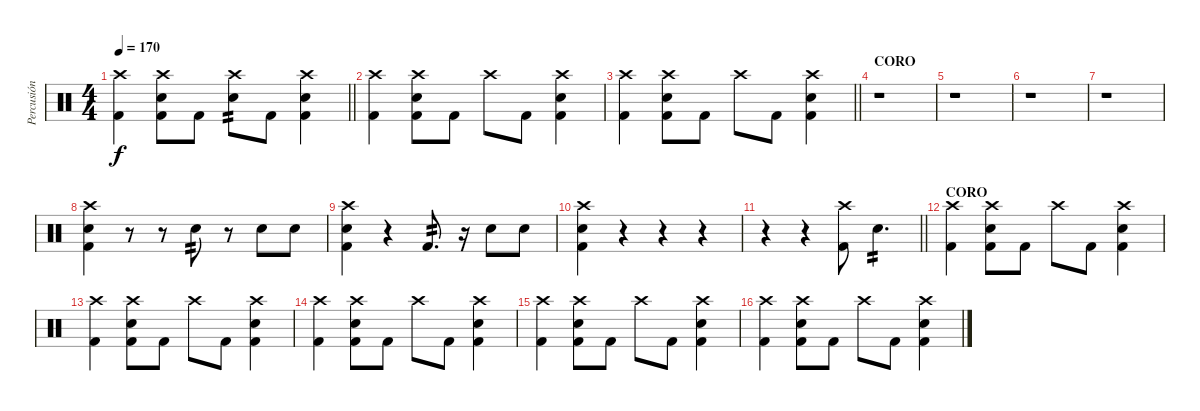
\track ("Percusión" "Percusión") {instrument percussion}
\staff {score}
\articulation defaults
\ts (4 4)
\tempo 170
\clef neutral
\barLineRight lightlight
\ks c
("Crash high (hit)" "Kick (hit) 2").4{dy f} ("Crash high (hit)" "Electric Snare (hit)" "Kick (hit) 2").8 "Kick (hit) 2".8 ("Crash high (hit)" "Electric Snare (hit)").8{tp 2} "Kick (hit) 2".8 ("Crash high (hit)" "Electric Snare (hit)" "Kick (hit) 2").4 |
("Crash high (hit)" "Kick (hit) 2").4 ("Crash high (hit)" "Electric Snare (hit)" "Kick (hit) 2").8 "Kick (hit) 2".8 "Crash high (hit)".8 "Kick (hit) 2".8 ("Crash high (hit)" "Electric Snare (hit)" "Kick (hit) 2").4 |
\barLineRight lightlight
("Crash high (hit)" "Kick (hit) 2").4 ("Crash high (hit)" "Electric Snare (hit)" "Kick (hit) 2").8 "Kick (hit) 2".8 "Crash high (hit)".8 "Kick (hit) 2".8 ("Crash high (hit)" "Electric Snare (hit)" "Kick (hit) 2").4 |
\section ("" "CORO")
r.1 |
r.1 |
r.1 |
r.1 |
("Crash high (hit)" "Electric Snare (hit)" "Kick (hit) 2").4 r.8 r.8 "Electric Snare (hit)".8{tp 2} r.8 "Electric Snare (hit)".8 "Electric Snare (hit)".8 |
("Crash high (hit)" "Electric Snare (hit)" "Kick (hit) 2").4 r.4 "Kick (hit) 2".8{d tp 2} r.16 "Electric Snare (hit)".8 "Electric Snare (hit)".8 |
("Crash high (hit)" "Electric Snare (hit)" "Kick (hit) 2").4 r.4 r.4 r.4 |
\barLineRight lightlight
r.4 r.4 ("Crash high (hit)" "Kick (hit) 2").8 "Electric Snare (hit)".4{d tp 2} |
\section ("" "CORO")
("Crash high (hit)" "Kick (hit) 2").4 ("Crash high (hit)" "Electric Snare (hit)" "Kick (hit) 2").8 "Kick (hit) 2".8 "Crash high (hit)".8 "Kick (hit) 2".8 ("Crash high (hit)" "Electric Snare (hit)" "Kick (hit) 2").4 |
("Crash high (hit)" "Kick (hit) 2").4 ("Crash high (hit)" "Electric Snare (hit)" "Kick (hit) 2").8 "Kick (hit) 2".8 "Crash high (hit)".8 "Kick (hit) 2".8 ("Crash high (hit)" "Electric Snare (hit)" "Kick (hit) 2").4 |
("Crash high (hit)" "Kick (hit) 2").4 ("Crash high (hit)" "Electric Snare (hit)" "Kick (hit) 2").8 "Kick (hit) 2".8 "Crash high (hit)".8 "Kick (hit) 2".8 ("Crash high (hit)" "Electric Snare (hit)" "Kick (hit) 2").4 |
("Crash high (hit)" "Kick (hit) 2").4 ("Crash high (hit)" "Electric Snare (hit)" "Kick (hit) 2").8 "Kick (hit) 2".8 "Crash high (hit)".8 "Kick (hit) 2".8 ("Crash high (hit)" "Electric Snare (hit)" "Kick (hit) 2").4 |
("Crash high (hit)" "Kick (hit) 2").4 ("Crash high (hit)" "Electric Snare (hit)" "Kick (hit) 2").8 "Kick (hit) 2".8 "Crash high (hit)".8 "Kick (hit) 2".8 ("Crash high (hit)" "Electric Snare (hit)" "Kick (hit) 2").4
